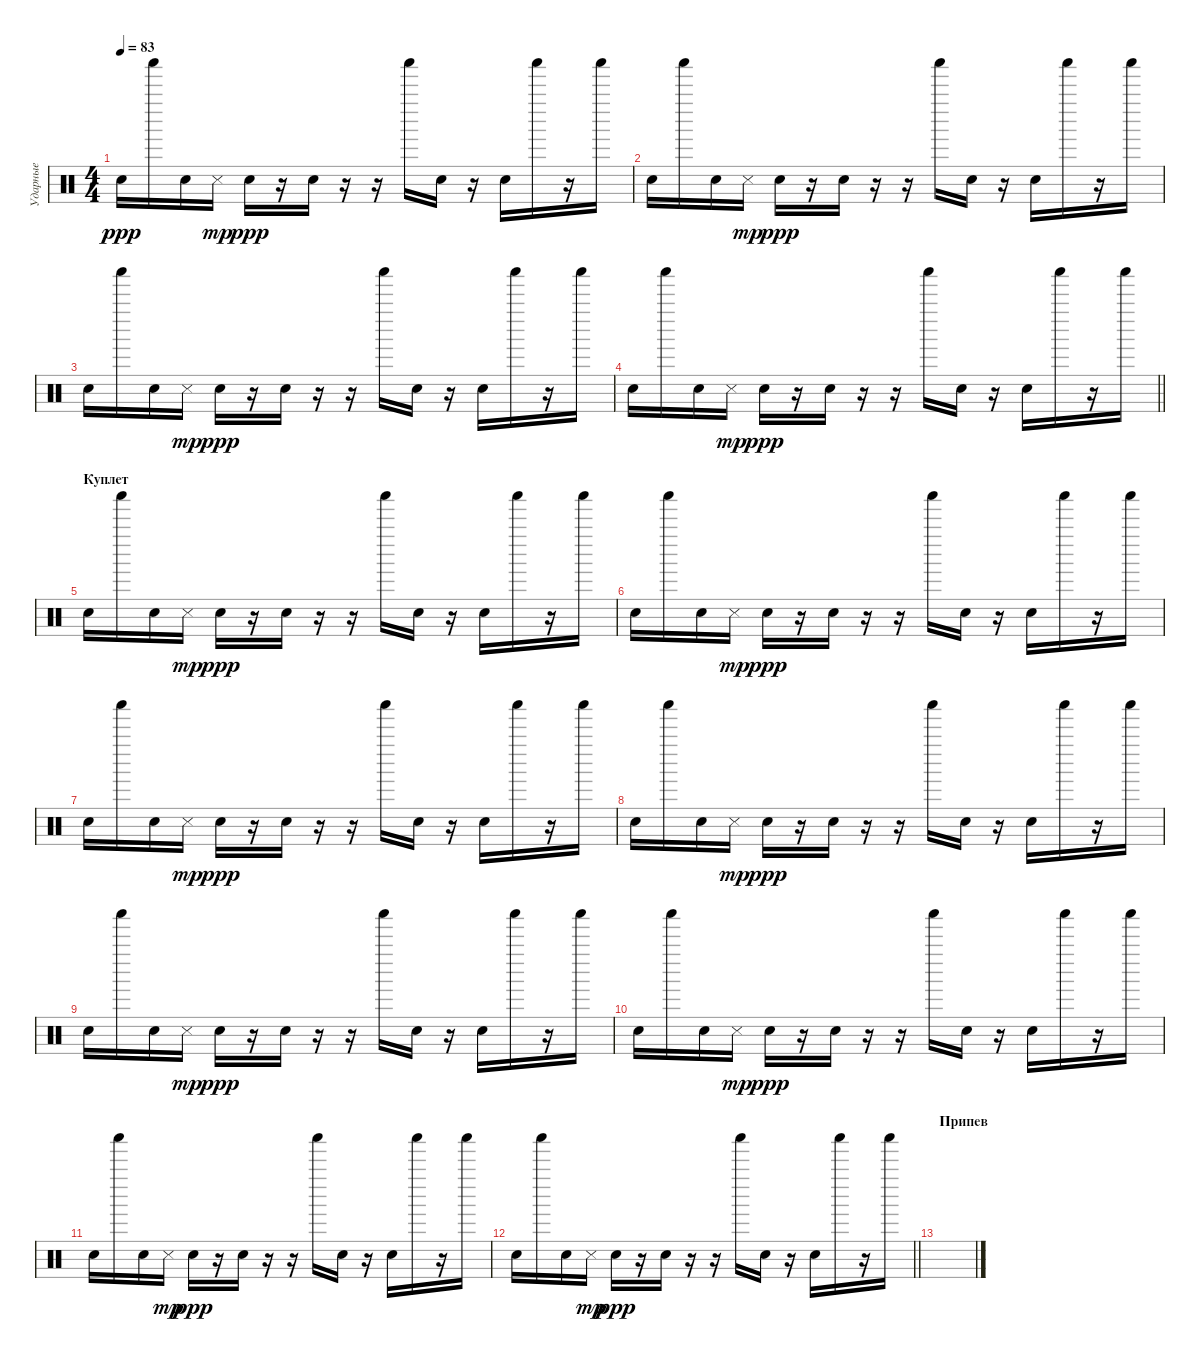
\track ("Ударные" "Ударные") {instrument percussion}
\staff {score}
\articulation defaults
\ts (4 4)
\tempo 83
\clef neutral
\ks c "Snare (hit)".16{dy ppp} "Shaker (hit)".16 "Snare (hit)".16 "Snare (side stick) 3".16{dy mp} "Snare (hit)".16{dy ppp}
r.16 "Snare (hit)".16 r.16 r.16 "Shaker (hit)".16 "Snare (hit)".16 r.16 "Snare (hit)".16 "Shaker (hit)".16 r.16 "Shaker (hit)".16 |
"Snare (hit)".16 "Shaker (hit)".16 "Snare (hit)".16 "Snare (side stick) 3".16{dy mp} "Snare (hit)".16{dy ppp} r.16 "Snare (hit)".16 r.16 r.16 "Shaker (hit)".16 "Snare (hit)".16 r.16 "Snare (hit)".16 "Shaker (hit)".16 r.16 "Shaker (hit)".16 |
"Snare (hit)".16 "Shaker (hit)".16 "Snare (hit)".16 "Snare (side stick) 3".16{dy mp} "Snare (hit)".16{dy ppp} r.16 "Snare (hit)".16 r.16 r.16 "Shaker (hit)".16 "Snare (hit)".16 r.16 "Snare (hit)".16 "Shaker (hit)".16 r.16 "Shaker (hit)".16 |
\barLineRight lightlight "Snare (hit)".16 "Shaker (hit)".16 "Snare (hit)".16 "Snare (side stick) 3".16{dy mp} "Snare (hit)".16{dy ppp}
r.16 "Snare (hit)".16 r.16 r.16 "Shaker (hit)".16 "Snare (hit)".16 r.16 "Snare (hit)".16 "Shaker (hit)".16 r.16 "Shaker (hit)".16 |
\section ("" "Куплет")
"Snare (hit)".16 "Shaker (hit)".16 "Snare (hit)".16 "Snare (side stick) 3".16{dy mp} "Snare (hit)".16{dy ppp} r.16 "Snare (hit)".16 r.16 r.16 "Shaker (hit)".16 "Snare (hit)".16 r.16 "Snare (hit)".16 "Shaker (hit)".16 r.16 "Shaker (hit)".16 |
"Snare (hit)".16 "Shaker (hit)".16 "Snare (hit)".16 "Snare (side stick) 3".16{dy mp} "Snare (hit)".16{dy ppp} r.16 "Snare (hit)".16 r.16 r.16 "Shaker (hit)".16 "Snare (hit)".16 r.16 "Snare (hit)".16 "Shaker (hit)".16 r.16 "Shaker (hit)".16 |
"Snare (hit)".16 "Shaker (hit)".16 "Snare (hit)".16 "Snare (side stick) 3".16{dy mp} "Snare (hit)".16{dy ppp} r.16 "Snare (hit)".16 r.16 r.16 "Shaker (hit)".16 "Snare (hit)".16 r.16 "Snare (hit)".16 "Shaker (hit)".16 r.16 "Shaker (hit)".16 |
"Snare (hit)".16 "Shaker (hit)".16 "Snare (hit)".16 "Snare (side stick) 3".16{dy mp} "Snare (hit)".16{dy ppp} r.16 "Snare (hit)".16 r.16 r.16 "Shaker (hit)".16 "Snare (hit)".16 r.16 "Snare (hit)".16 "Shaker (hit)".16 r.16 "Shaker (hit)".16 |
"Snare (hit)".16 "Shaker (hit)".16 "Snare (hit)".16 "Snare (side stick) 3".16{dy mp} "Snare (hit)".16{dy ppp} r.16 "Snare (hit)".16 r.16 r.16 "Shaker (hit)".16 "Snare (hit)".16 r.16 "Snare (hit)".16 "Shaker (hit)".16 r.16 "Shaker (hit)".16 |
"Snare (hit)".16 "Shaker (hit)".16 "Snare (hit)".16 "Snare (side stick) 3".16{dy mp} "Snare (hit)".16{dy ppp} r.16 "Snare (hit)".16 r.16 r.16 "Shaker (hit)".16 "Snare (hit)".16 r.16 "Snare (hit)".16 "Shaker (hit)".16 r.16 "Shaker (hit)".16 |
"Snare (hit)".16 "Shaker (hit)".16 "Snare (hit)".16 "Snare (side stick) 3".16{dy mp} "Snare (hit)".16{dy ppp} r.16 "Snare (hit)".16 r.16 r.16 "Shaker (hit)".16 "Snare (hit)".16 r.16 "Snare (hit)".16 "Shaker (hit)".16 r.16 "Shaker (hit)".16 |
\barLineRight lightlight "Snare (hit)".16 "Shaker (hit)".16 "Snare (hit)".16 "Snare (side stick) 3".16{dy mp} "Snare (hit)".16{dy ppp}
r.16 "Snare (hit)".16 r.16 r.16 "Shaker (hit)".16 "Snare (hit)".16 r.16 "Snare (hit)".16 "Shaker (hit)".16 r.16 "Shaker (hit)".16 |
\section ("" "Припев")
